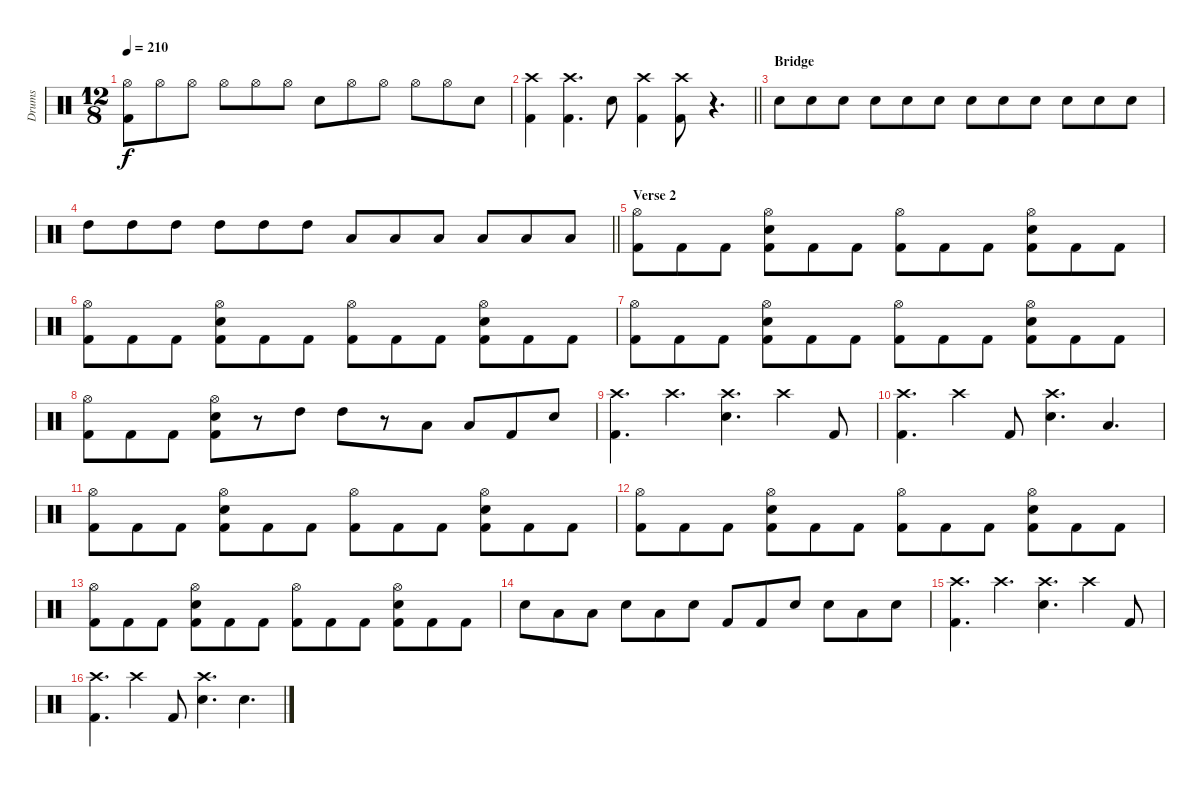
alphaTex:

\track ("Drums" "Drums") {instrument percussion}
\staff {score}
\articulation defaults
\ts (12 8)
\tempo 210
\clef neutral
\ks c
("Hi-Hat (open)" "Kick (hit) 2").8{dy f} "Hi-Hat (open)".8 "Hi-Hat (open)".8 "Hi-Hat (open)".8 "Hi-Hat (open)".8 "Hi-Hat (open)".8 "Electric Snare (hit)".8 "Hi-Hat (open)".8 "Hi-Hat (open)".8 "Hi-Hat (open)".8 "Hi-Hat (open)".8 "Electric Snare (hit)".8 |
\barLineRight lightlight
("Crash high (hit)" "Kick (hit) 2").4 ("Crash high (hit)" "Kick (hit) 2").4{d} "Electric Snare (hit)".8 ("Crash high (hit)" "Kick (hit) 2").4 ("Crash high (hit)" "Kick (hit) 2").8 r.4{d} |
\section ("" "Bridge")
"Electric Snare (hit)".8 "Electric Snare (hit)".8 "Electric Snare (hit)".8 "Electric Snare (hit)".8 "Electric Snare (hit)".8 "Electric Snare (hit)".8 "Electric Snare (hit)".8 "Electric Snare (hit)".8 "Electric Snare (hit)".8 "Electric Snare (hit)".8 "Electric Snare (hit)".8 "Electric Snare (hit)".8 |
\barLineRight lightlight "High Tom (hit)".8 "High Tom (hit)".8 "High Tom (hit)".8 "High Tom (hit)".8 "High Tom (hit)".8 "High Tom (hit)".8 "Low Tom (hit)".8 "Low Tom (hit)".8 "Low Tom (hit)".8 "Low Tom (hit)".8 "Low Tom (hit)".8 "Low Tom (hit)".8
|
\section ("" "Verse 2")
("Hi-Hat (open)" "Kick (hit) 2").8 "Kick (hit) 2".8 "Kick (hit) 2".8 ("Hi-Hat (open)" "Electric Snare (hit)" "Kick (hit) 2").8 "Kick (hit) 2".8 "Kick (hit) 2".8 ("Hi-Hat (open)" "Kick (hit) 2").8 "Kick (hit) 2".8 "Kick (hit) 2".8 ("Hi-Hat (open)" "Electric Snare (hit)" "Kick (hit) 2").8 "Kick (hit) 2".8 "Kick (hit) 2".8 |
("Hi-Hat (open)" "Kick (hit) 2").8 "Kick (hit) 2".8 "Kick (hit) 2".8 ("Hi-Hat (open)" "Electric Snare (hit)" "Kick (hit) 2").8 "Kick (hit) 2".8 "Kick (hit) 2".8 ("Hi-Hat (open)" "Kick (hit) 2").8 "Kick (hit) 2".8 "Kick (hit) 2".8 ("Hi-Hat (open)" "Electric Snare (hit)" "Kick (hit) 2").8 "Kick (hit) 2".8 "Kick (hit) 2".8 |
("Hi-Hat (open)" "Kick (hit) 2").8 "Kick (hit) 2".8 "Kick (hit) 2".8 ("Hi-Hat (open)" "Electric Snare (hit)" "Kick (hit) 2").8 "Kick (hit) 2".8 "Kick (hit) 2".8 ("Hi-Hat (open)" "Kick (hit) 2").8 "Kick (hit) 2".8 "Kick (hit) 2".8 ("Hi-Hat (open)" "Electric Snare (hit)" "Kick (hit) 2").8 "Kick (hit) 2".8 "Kick (hit) 2".8 |
("Hi-Hat (open)" "Kick (hit) 2").8 "Kick (hit) 2".8 "Kick (hit) 2".8 ("Hi-Hat (open)" "Electric Snare (hit)" "Kick (hit) 2").8 r.8 "High Tom (hit)".8 "High Tom (hit)".8 r.8 "Low Tom (hit)".8 "Low Tom (hit)".8 "Kick (hit) 2".8 "Electric Snare (hit)".8 |
("Crash high (hit)" "Kick (hit) 2").4{d} "Crash high (hit)".4{d} ("Crash high (hit)" "Electric Snare (hit)").4{d} "Crash high (hit)".4 "Kick (hit) 2".8 |
("Crash high (hit)" "Kick (hit) 2").4{d} "Crash high (hit)".4 "Kick (hit) 2".8 ("Crash high (hit)" "Electric Snare (hit)").4{d} "Low Tom (hit)".4{d} |
("Hi-Hat (open)" "Kick (hit) 2").8 "Kick (hit) 2".8 "Kick (hit) 2".8 ("Hi-Hat (open)" "Electric Snare (hit)" "Kick (hit) 2").8 "Kick (hit) 2".8 "Kick (hit) 2".8 ("Hi-Hat (open)" "Kick (hit) 2").8 "Kick (hit) 2".8 "Kick (hit) 2".8 ("Hi-Hat (open)" "Electric Snare (hit)" "Kick (hit) 2").8 "Kick (hit) 2".8 "Kick (hit) 2".8 |
("Hi-Hat (open)" "Kick (hit) 2").8 "Kick (hit) 2".8 "Kick (hit) 2".8 ("Hi-Hat (open)" "Electric Snare (hit)" "Kick (hit) 2").8 "Kick (hit) 2".8 "Kick (hit) 2".8 ("Hi-Hat (open)" "Kick (hit) 2").8 "Kick (hit) 2".8 "Kick (hit) 2".8 ("Hi-Hat (open)" "Electric Snare (hit)" "Kick (hit) 2").8 "Kick (hit) 2".8 "Kick (hit) 2".8 |
("Hi-Hat (open)" "Kick (hit) 2").8 "Kick (hit) 2".8 "Kick (hit) 2".8 ("Hi-Hat (open)" "Electric Snare (hit)" "Kick (hit) 2").8 "Kick (hit) 2".8 "Kick (hit) 2".8 ("Hi-Hat (open)" "Kick (hit) 2").8 "Kick (hit) 2".8 "Kick (hit) 2".8 ("Hi-Hat (open)" "Electric Snare (hit)" "Kick (hit) 2").8 "Kick (hit) 2".8 "Kick (hit) 2".8 |
"Electric Snare (hit)".8 "Low Tom (hit)".8 "Low Tom (hit)".8 "Electric Snare (hit)".8 "Low Tom (hit)".8 "Electric Snare (hit)".8 "Kick (hit) 2".8 "Kick (hit) 2".8 "Electric Snare (hit)".8 "Electric Snare (hit)".8 "Low Tom (hit)".8 "Electric Snare (hit)".8 |
("Crash high (hit)" "Kick (hit) 2").4{d} "Crash high (hit)".4{d} ("Crash high (hit)" "Electric Snare (hit)").4{d} "Crash high (hit)".4 "Kick (hit) 2".8 |
("Crash high (hit)" "Kick (hit) 2").4{d} "Crash high (hit)".4 "Kick (hit) 2".8 ("Crash high (hit)" "Electric Snare (hit)").4{d} "Electric Snare (hit)".4{d}
